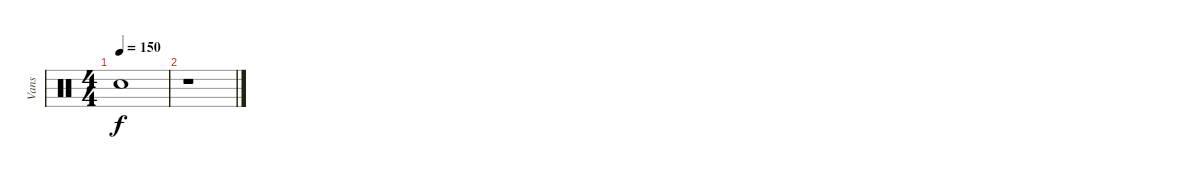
\track ("Vans" "Vans") {instrument percussion}
\staff {score}
\articulation defaults
\ts (4 4)
\tempo 150
\clef neutral
\ks c "Snare (hit)"{t}.1{dy f}
|
r.1
